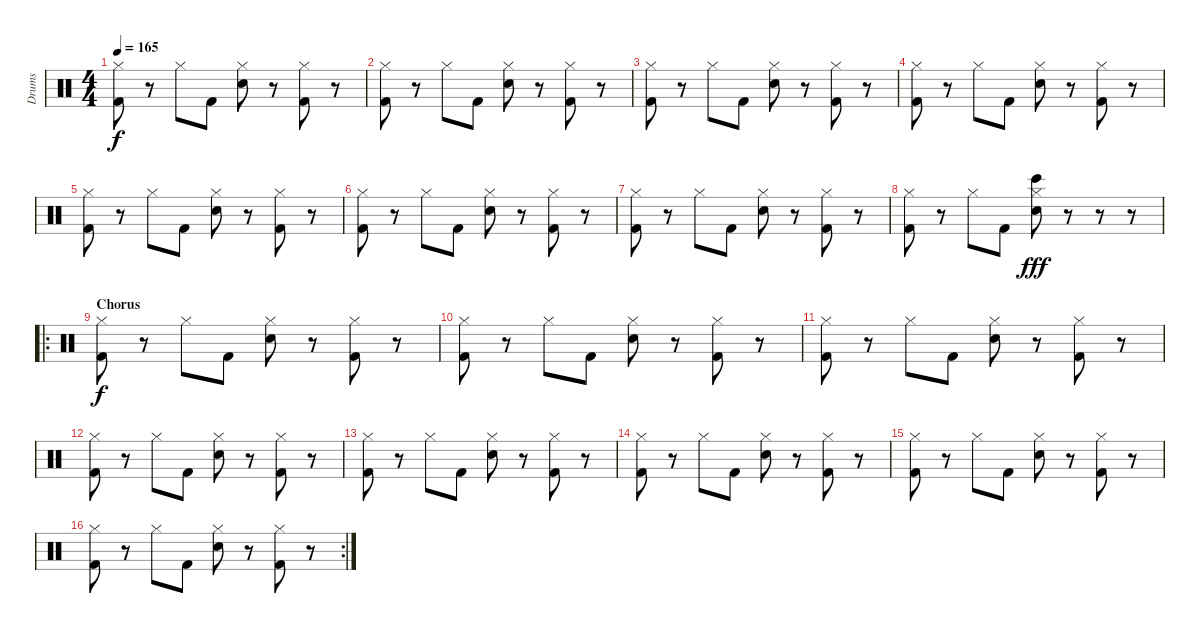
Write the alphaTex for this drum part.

\track ("Drums" "Drums") {instrument percussion}
\staff {score}
\articulation defaults
\ts (4 4)
\tempo 165
\clef neutral
\ks c
("Hi-Hat (closed)" "Kick (hit) 2").8{dy f} r.8 "Hi-Hat (closed)".8 "Kick (hit) 2".8 ("Hi-Hat (closed)" "Electric Snare (hit)").8 r.8 ("Hi-Hat (closed)" "Kick (hit) 2").8 r.8 |
("Hi-Hat (closed)" "Kick (hit) 2").8 r.8 "Hi-Hat (closed)".8 "Kick (hit) 2".8 ("Hi-Hat (closed)" "Electric Snare (hit)").8 r.8 ("Hi-Hat (closed)" "Kick (hit) 2").8 r.8 |
("Hi-Hat (closed)" "Kick (hit) 2").8 r.8 "Hi-Hat (closed)".8 "Kick (hit) 2".8 ("Hi-Hat (closed)" "Electric Snare (hit)").8 r.8 ("Hi-Hat (closed)" "Kick (hit) 2").8 r.8 |
("Hi-Hat (closed)" "Kick (hit) 2").8 r.8 "Hi-Hat (closed)".8 "Kick (hit) 2".8 ("Hi-Hat (closed)" "Electric Snare (hit)").8 r.8 ("Hi-Hat (closed)" "Kick (hit) 2").8 r.8 |
("Hi-Hat (closed)" "Kick (hit) 2").8 r.8 "Hi-Hat (closed)".8 "Kick (hit) 2".8 ("Hi-Hat (closed)" "Electric Snare (hit)").8 r.8 ("Hi-Hat (closed)" "Kick (hit) 2").8 r.8 |
("Hi-Hat (closed)" "Kick (hit) 2").8 r.8 "Hi-Hat (closed)".8 "Kick (hit) 2".8 ("Hi-Hat (closed)" "Electric Snare (hit)").8 r.8 ("Hi-Hat (closed)" "Kick (hit) 2").8 r.8 |
("Hi-Hat (closed)" "Kick (hit) 2").8 r.8 "Hi-Hat (closed)".8 "Kick (hit) 2".8 ("Hi-Hat (closed)" "Electric Snare (hit)").8 r.8 ("Hi-Hat (closed)" "Kick (hit) 2").8 r.8 |
("Hi-Hat (closed)" "Kick (hit) 2").8 r.8 "Hi-Hat (closed)".8 "Kick (hit) 2".8 ("Hi-Hat (closed)" "Bongo High (hit)" "Electric Snare (hit)").8{dy fff} r.8 r.8 r.8 |
\ro
\section ("" "Chorus")
("Hi-Hat (closed)" "Kick (hit) 2").8{dy f} r.8 "Hi-Hat (closed)".8 "Kick (hit) 2".8 ("Hi-Hat (closed)" "Electric Snare (hit)").8 r.8 ("Hi-Hat (closed)" "Kick (hit) 2").8 r.8 |
("Hi-Hat (closed)" "Kick (hit) 2").8 r.8 "Hi-Hat (closed)".8 "Kick (hit) 2".8 ("Hi-Hat (closed)" "Electric Snare (hit)").8 r.8 ("Hi-Hat (closed)" "Kick (hit) 2").8 r.8 |
("Hi-Hat (closed)" "Kick (hit) 2").8 r.8 "Hi-Hat (closed)".8 "Kick (hit) 2".8 ("Hi-Hat (closed)" "Electric Snare (hit)").8 r.8 ("Hi-Hat (closed)" "Kick (hit) 2").8 r.8 |
("Hi-Hat (closed)" "Kick (hit) 2").8 r.8 "Hi-Hat (closed)".8 "Kick (hit) 2".8 ("Hi-Hat (closed)" "Electric Snare (hit)").8 r.8 ("Hi-Hat (closed)" "Kick (hit) 2").8 r.8 |
("Hi-Hat (closed)" "Kick (hit) 2").8 r.8 "Hi-Hat (closed)".8 "Kick (hit) 2".8 ("Hi-Hat (closed)" "Electric Snare (hit)").8 r.8 ("Hi-Hat (closed)" "Kick (hit) 2").8 r.8 |
("Hi-Hat (closed)" "Kick (hit) 2").8 r.8 "Hi-Hat (closed)".8 "Kick (hit) 2".8 ("Hi-Hat (closed)" "Electric Snare (hit)").8 r.8 ("Hi-Hat (closed)" "Kick (hit) 2").8 r.8 |
("Hi-Hat (closed)" "Kick (hit) 2").8 r.8 "Hi-Hat (closed)".8 "Kick (hit) 2".8 ("Hi-Hat (closed)" "Electric Snare (hit)").8 r.8 ("Hi-Hat (closed)" "Kick (hit) 2").8 r.8 |
\rc 2
("Hi-Hat (closed)" "Kick (hit) 2").8 r.8 "Hi-Hat (closed)".8 "Kick (hit) 2".8 ("Hi-Hat (closed)" "Electric Snare (hit)").8 r.8 ("Hi-Hat (closed)" "Kick (hit) 2").8 r.8
